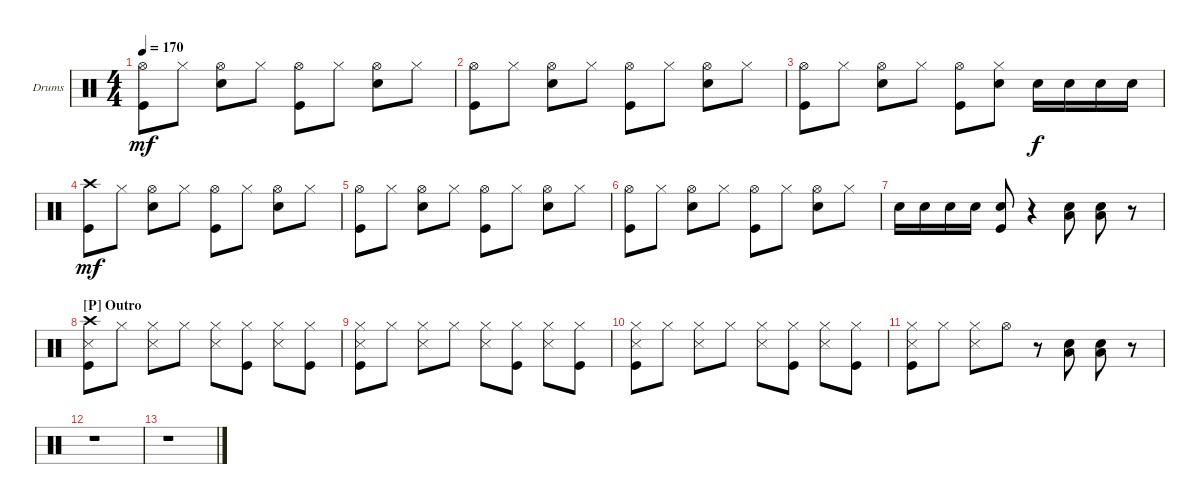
\defaultSystemsLayout 4
\bracketExtendMode groupsimilarinstruments
\firstSystemTrackNameOrientation horizontal
\otherSystemsTrackNameOrientation horizontal
\track ("Drumkit" "Drums") {instrument percussion}
\staff {score}
\articulation defaults
\ts (4 4)
\tempo 170
\clef neutral
\ks c
("Kick (hit)" "Hi-Hat (open)").8{dy mf} "Hi-Hat (closed)".8 ("Hi-Hat (open)" "Snare (hit) 2").8 "Hi-Hat (closed)".8 ("Hi-Hat (open)" "Kick (hit)").8 "Hi-Hat (closed)".8 ("Hi-Hat (open)" "Snare (hit) 2").8 "Hi-Hat (closed)".8 |
("Kick (hit)" "Hi-Hat (open)").8 "Hi-Hat (closed)".8 ("Hi-Hat (open)" "Snare (hit) 2").8 "Hi-Hat (closed)".8 ("Hi-Hat (open)" "Kick (hit)").8 "Hi-Hat (closed)".8 ("Hi-Hat (open)" "Snare (hit) 2").8 "Hi-Hat (closed)".8 |
("Kick (hit)" "Hi-Hat (open)").8 "Hi-Hat (closed)".8 ("Hi-Hat (open)" "Snare (hit) 2").8 "Hi-Hat (closed)".8 ("Hi-Hat (open)" "Kick (hit)").8 ("Hi-Hat (closed)" "Snare (hit) 2").8 "Snare (hit) 2".16{dy f} "Snare (hit) 2".16 "Snare (hit) 2".16 "Snare (hit) 2".16 |
("Crash high (hit)" "Kick (hit)").8{dy mf} "Hi-Hat (closed)".8 ("Hi-Hat (open)" "Snare (hit) 2").8 "Hi-Hat (closed)".8 ("Kick (hit)" "Hi-Hat (open)").8 "Hi-Hat (closed)".8 ("Hi-Hat (open)" "Snare (hit) 2").8 "Hi-Hat (closed)".8 |
("Kick (hit)" "Hi-Hat (open)").8 "Hi-Hat (closed)".8 ("Hi-Hat (open)" "Snare (hit) 2").8 "Hi-Hat (closed)".8 ("Hi-Hat (open)" "Kick (hit)").8 "Hi-Hat (closed)".8 ("Hi-Hat (open)" "Snare (hit) 2").8 "Hi-Hat (closed)".8 |
("Kick (hit)" "Hi-Hat (open)").8 "Hi-Hat (closed)".8 ("Hi-Hat (open)" "Snare (hit) 2").8 "Hi-Hat (closed)".8 ("Hi-Hat (open)" "Kick (hit)").8 "Hi-Hat (closed)".8 ("Hi-Hat (open)" "Snare (hit) 2").8 "Hi-Hat (closed)".8 |
"Snare (hit) 2".16 "Snare (hit) 2".16 "Snare (hit) 2".16 "Snare (hit) 2".16 ("Snare (hit) 2" "Kick (hit)").8 r.4 ("Snare (hit) 2" "Low Tom (hit)").8 ("Snare (hit) 2" "Low Tom (hit)").8 r.8 |
\section ("P" "Outro")
("Crash high (hit)" "Kick (hit)" "Snare (side stick) 3").8 "Hi-Hat (closed)".8 ("Hi-Hat (closed)" "Snare (side stick) 3").8 "Hi-Hat (closed)".8 ("Hi-Hat (closed)" "Snare (side stick) 3").8 ("Hi-Hat (closed)" "Kick (hit)").8 ("Hi-Hat (closed)" "Snare (side stick) 3").8 ("Hi-Hat (closed)" "Kick (hit)").8 |
("Kick (hit)" "Hi-Hat (closed)" "Snare (side stick) 3").8 "Hi-Hat (closed)".8 ("Hi-Hat (closed)" "Snare (side stick) 3").8 "Hi-Hat (closed)".8 ("Hi-Hat (closed)" "Snare (side stick) 3").8 ("Hi-Hat (closed)" "Kick (hit)").8 ("Hi-Hat (closed)" "Snare (side stick) 3").8 ("Hi-Hat (closed)" "Kick (hit)").8 |
("Kick (hit)" "Hi-Hat (closed)" "Snare (side stick) 3").8 "Hi-Hat (closed)".8 ("Hi-Hat (closed)" "Snare (side stick) 3").8 "Hi-Hat (closed)".8 ("Hi-Hat (closed)" "Snare (side stick) 3").8 ("Hi-Hat (closed)" "Kick (hit)").8 ("Hi-Hat (closed)" "Snare (side stick) 3").8 ("Hi-Hat (closed)" "Kick (hit)").8 |
("Kick (hit)" "Hi-Hat (closed)" "Snare (side stick) 3").8 "Hi-Hat (closed)".8 ("Hi-Hat (closed)" "Snare (side stick) 3").8 "Hi-Hat (open)".8 r.8 ("Snare (hit) 2" "Low Tom (hit)").8 ("Snare (hit) 2" "Low Tom (hit)").8 r.8 |
r.1 |
r.1
